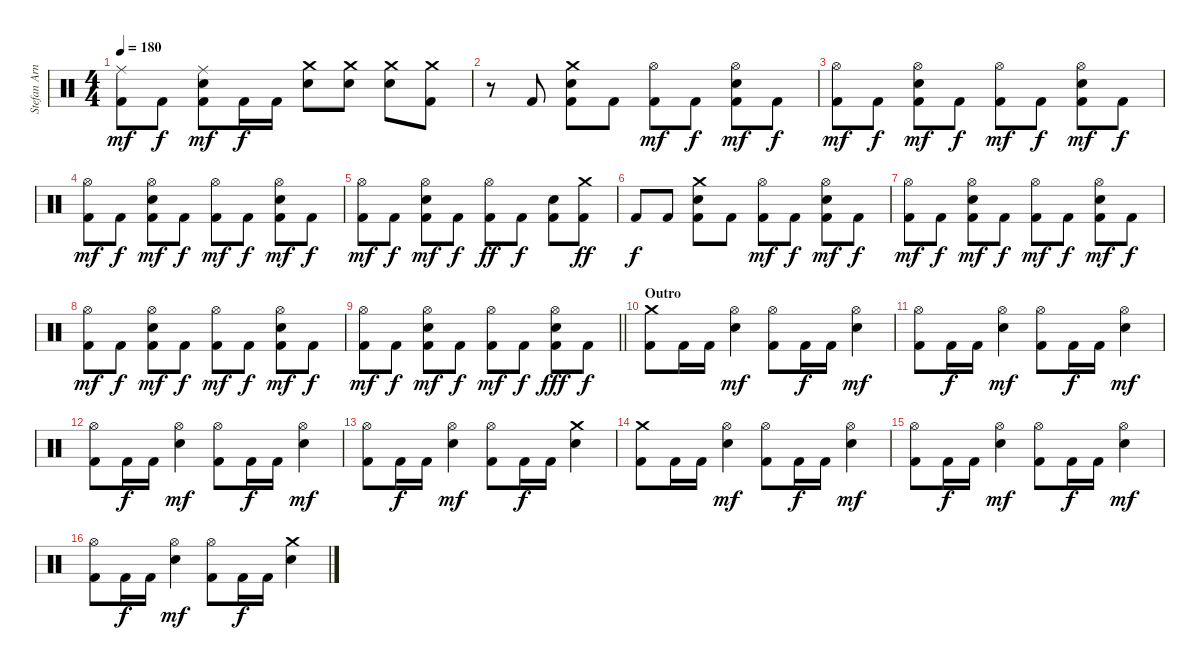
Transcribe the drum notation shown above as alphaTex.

\track ("Stefan Arnold" "Stefan Arn") {instrument percussion}
\staff {score}
\articulation defaults
\ts (4 4)
\tempo 180
\clef neutral
\ks c
("Ride (middle)" "Kick (hit) 2").8{dy mf} "Kick (hit) 2".8{dy f} ("Ride (middle)" "Electric Snare (hit)" "Kick (hit) 2").8{dy mf} "Kick (hit) 2".16{dy f} "Kick (hit) 2".16 ("Crash medium (hit)" "Electric Snare (hit)").8 ("Crash medium (hit)" "Electric Snare (hit)").8 ("Crash medium (hit)" "Electric Snare (hit)").8 ("Crash medium (hit)" "Kick (hit) 2").8 |
r.8 "Kick (hit) 2".8 ("Crash medium (hit)" "Electric Snare (hit)" "Kick (hit) 2").8 "Kick (hit) 2".8 ("Hi-Hat (open)" "Kick (hit) 2").8{dy mf} "Kick (hit) 2".8{dy f} ("Hi-Hat (open)" "Electric Snare (hit)" "Kick (hit) 2").8{dy mf} "Kick (hit) 2".8{dy f} |
("Hi-Hat (open)" "Kick (hit) 2").8{dy mf} "Kick (hit) 2".8{dy f} ("Hi-Hat (open)" "Electric Snare (hit)" "Kick (hit) 2").8{dy mf} "Kick (hit) 2".8{dy f} ("Hi-Hat (open)" "Kick (hit) 2").8{dy mf} "Kick (hit) 2".8{dy f} ("Hi-Hat (open)" "Electric Snare (hit)" "Kick (hit) 2").8{dy mf} "Kick (hit) 2".8{dy f} |
("Hi-Hat (open)" "Kick (hit) 2").8{dy mf} "Kick (hit) 2".8{dy f} ("Hi-Hat (open)" "Electric Snare (hit)" "Kick (hit) 2").8{dy mf} "Kick (hit) 2".8{dy f} ("Hi-Hat (open)" "Kick (hit) 2").8{dy mf} "Kick (hit) 2".8{dy f} ("Hi-Hat (open)" "Electric Snare (hit)" "Kick (hit) 2").8{dy mf} "Kick (hit) 2".8{dy f} |
("Hi-Hat (open)" "Kick (hit) 2").8{dy mf} "Kick (hit) 2".8{dy f} ("Hi-Hat (open)" "Electric Snare (hit)" "Kick (hit) 2").8{dy mf} "Kick (hit) 2".8{dy f} ("Hi-Hat (open)" "Kick (hit) 2").8{dy ff} "Kick (hit) 2".8{dy f} ("Electric Snare (hit)" "Kick (hit) 2").8 ("Crash medium (hit)" "Kick (hit) 2").8{dy ff} |
"Kick (hit) 2".8{dy f} "Kick (hit) 2".8 ("Crash medium (hit)" "Electric Snare (hit)" "Kick (hit) 2").8 "Kick (hit) 2".8 ("Hi-Hat (open)" "Kick (hit) 2").8{dy mf} "Kick (hit) 2".8{dy f} ("Hi-Hat (open)" "Electric Snare (hit)" "Kick (hit) 2").8{dy mf} "Kick (hit) 2".8{dy f} |
("Hi-Hat (open)" "Kick (hit) 2").8{dy mf} "Kick (hit) 2".8{dy f} ("Hi-Hat (open)" "Electric Snare (hit)" "Kick (hit) 2").8{dy mf} "Kick (hit) 2".8{dy f} ("Hi-Hat (open)" "Kick (hit) 2").8{dy mf} "Kick (hit) 2".8{dy f} ("Hi-Hat (open)" "Electric Snare (hit)" "Kick (hit) 2").8{dy mf} "Kick (hit) 2".8{dy f} |
("Hi-Hat (open)" "Kick (hit) 2").8{dy mf} "Kick (hit) 2".8{dy f} ("Hi-Hat (open)" "Electric Snare (hit)" "Kick (hit) 2").8{dy mf} "Kick (hit) 2".8{dy f} ("Hi-Hat (open)" "Kick (hit) 2").8{dy mf} "Kick (hit) 2".8{dy f} ("Hi-Hat (open)" "Electric Snare (hit)" "Kick (hit) 2").8{dy mf} "Kick (hit) 2".8{dy f} |
\barLineRight lightlight
("Hi-Hat (open)" "Kick (hit) 2").8{dy mf} "Kick (hit) 2".8{dy f} ("Hi-Hat (open)" "Electric Snare (hit)" "Kick (hit) 2").8{dy mf} "Kick (hit) 2".8{dy f} ("Hi-Hat (open)" "Kick (hit) 2").8{dy mf} "Kick (hit) 2".8{dy f} ("Hi-Hat (open)" "Electric Snare (hit)" "Kick (hit) 2").8{dy fff} "Kick (hit) 2".8{dy f} |
\section ("" "Outro")
("Crash medium (hit)" "Kick (hit) 2").8 "Kick (hit) 2".16 "Kick (hit) 2".16 ("Hi-Hat (open)" "Electric Snare (hit)").4{dy mf} ("Hi-Hat (open)" "Kick (hit) 2").8 "Kick (hit) 2".16{dy f} "Kick (hit) 2".16 ("Hi-Hat (open)" "Electric Snare (hit)").4{dy mf} |
("Hi-Hat (open)" "Kick (hit) 2").8 "Kick (hit) 2".16{dy f} "Kick (hit) 2".16 ("Hi-Hat (open)" "Electric Snare (hit)").4{dy mf} ("Hi-Hat (open)" "Kick (hit) 2").8 "Kick (hit) 2".16{dy f} "Kick (hit) 2".16 ("Hi-Hat (open)" "Electric Snare (hit)").4{dy mf} |
("Hi-Hat (open)" "Kick (hit) 2").8 "Kick (hit) 2".16{dy f} "Kick (hit) 2".16 ("Hi-Hat (open)" "Electric Snare (hit)").4{dy mf} ("Hi-Hat (open)" "Kick (hit) 2").8 "Kick (hit) 2".16{dy f} "Kick (hit) 2".16 ("Hi-Hat (open)" "Electric Snare (hit)").4{dy mf} |
("Hi-Hat (open)" "Kick (hit) 2").8 "Kick (hit) 2".16{dy f} "Kick (hit) 2".16 ("Hi-Hat (open)" "Electric Snare (hit)").4{dy mf} ("Hi-Hat (open)" "Kick (hit) 2").8 "Kick (hit) 2".16{dy f} "Kick (hit) 2".16 ("Crash medium (hit)" "Electric Snare (hit)").4 |
("Crash medium (hit)" "Kick (hit) 2").8 "Kick (hit) 2".16 "Kick (hit) 2".16 ("Hi-Hat (open)" "Electric Snare (hit)").4{dy mf} ("Hi-Hat (open)" "Kick (hit) 2").8 "Kick (hit) 2".16{dy f} "Kick (hit) 2".16 ("Hi-Hat (open)" "Electric Snare (hit)").4{dy mf} |
("Hi-Hat (open)" "Kick (hit) 2").8 "Kick (hit) 2".16{dy f} "Kick (hit) 2".16 ("Hi-Hat (open)" "Electric Snare (hit)").4{dy mf} ("Hi-Hat (open)" "Kick (hit) 2").8 "Kick (hit) 2".16{dy f} "Kick (hit) 2".16 ("Hi-Hat (open)" "Electric Snare (hit)").4{dy mf} |
("Hi-Hat (open)" "Kick (hit) 2").8 "Kick (hit) 2".16{dy f} "Kick (hit) 2".16 ("Hi-Hat (open)" "Electric Snare (hit)").4{dy mf} ("Hi-Hat (open)" "Kick (hit) 2").8 "Kick (hit) 2".16{dy f} "Kick (hit) 2".16 ("Crash medium (hit)" "Electric Snare (hit)").4
